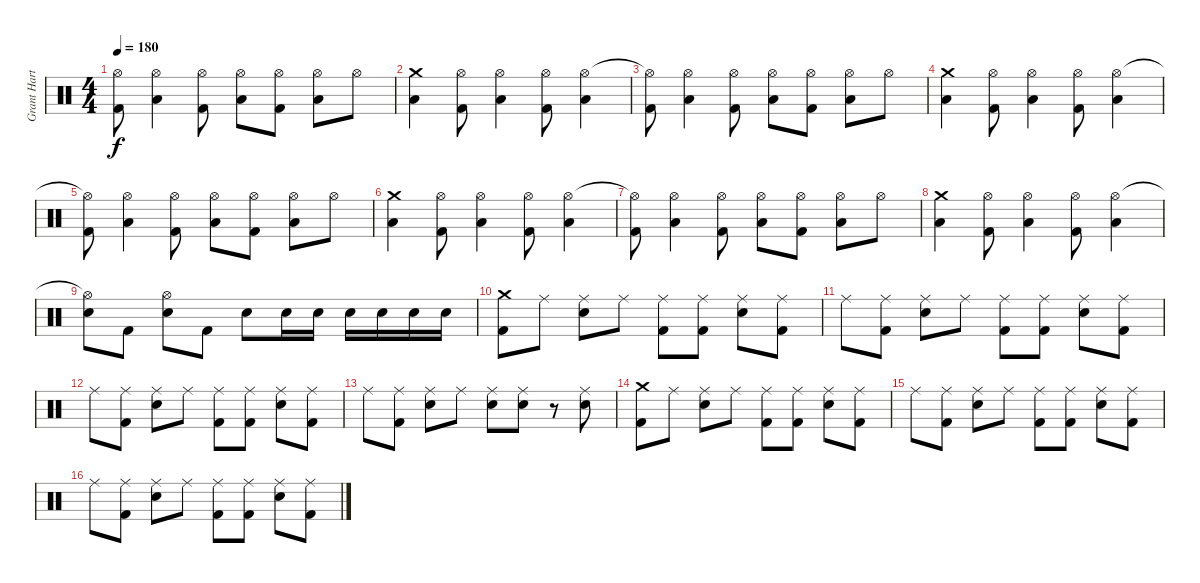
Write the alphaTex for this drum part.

\track ("Grant Hart - Drums" "Grant Hart") {instrument percussion}
\staff {score}
\articulation defaults
\ts (4 4)
\tempo 180
\clef neutral
\ks c
("Hi-Hat (open)"{t} "Kick (hit) 2").8{dy f} ("Hi-Hat (open)" "Low Floor Tom (hit)").4 ("Hi-Hat (open)" "Kick (hit) 2").8 ("Hi-Hat (open)" "Low Floor Tom (hit)").8 ("Hi-Hat (open)" "Kick (hit) 2").8 ("Hi-Hat (open)" "Low Floor Tom (hit)").8 "Hi-Hat (open)".8 |
("Crash medium (hit)" "Low Floor Tom (hit)").4 ("Hi-Hat (open)" "Kick (hit) 2").8 ("Hi-Hat (open)" "Low Floor Tom (hit)").4 ("Hi-Hat (open)" "Kick (hit) 2").8 ("Hi-Hat (open)" "Low Floor Tom (hit)").4 |
("Hi-Hat (open)"{t} "Kick (hit) 2").8 ("Hi-Hat (open)" "Low Floor Tom (hit)").4 ("Hi-Hat (open)" "Kick (hit) 2").8 ("Hi-Hat (open)" "Low Floor Tom (hit)").8 ("Hi-Hat (open)" "Kick (hit) 2").8 ("Hi-Hat (open)" "Low Floor Tom (hit)").8 "Hi-Hat (open)".8 |
("Crash medium (hit)" "Low Floor Tom (hit)").4 ("Hi-Hat (open)" "Kick (hit) 2").8 ("Hi-Hat (open)" "Low Floor Tom (hit)").4 ("Hi-Hat (open)" "Kick (hit) 2").8 ("Hi-Hat (open)" "Low Floor Tom (hit)").4 |
("Hi-Hat (open)"{t} "Kick (hit) 2").8 ("Hi-Hat (open)" "Low Floor Tom (hit)").4 ("Hi-Hat (open)" "Kick (hit) 2").8 ("Hi-Hat (open)" "Low Floor Tom (hit)").8 ("Hi-Hat (open)" "Kick (hit) 2").8 ("Hi-Hat (open)" "Low Floor Tom (hit)").8 "Hi-Hat (open)".8 |
("Crash medium (hit)" "Low Floor Tom (hit)").4 ("Hi-Hat (open)" "Kick (hit) 2").8 ("Hi-Hat (open)" "Low Floor Tom (hit)").4 ("Hi-Hat (open)" "Kick (hit) 2").8 ("Hi-Hat (open)" "Low Floor Tom (hit)").4 |
("Hi-Hat (open)"{t} "Kick (hit) 2").8 ("Hi-Hat (open)" "Low Floor Tom (hit)").4 ("Hi-Hat (open)" "Kick (hit) 2").8 ("Hi-Hat (open)" "Low Floor Tom (hit)").8 ("Hi-Hat (open)" "Kick (hit) 2").8 ("Hi-Hat (open)" "Low Floor Tom (hit)").8 "Hi-Hat (open)".8 |
("Crash medium (hit)" "Low Floor Tom (hit)").4 ("Hi-Hat (open)" "Kick (hit) 2").8 ("Hi-Hat (open)" "Low Floor Tom (hit)").4 ("Hi-Hat (open)" "Kick (hit) 2").8 ("Hi-Hat (open)" "Low Floor Tom (hit)").4 |
("Hi-Hat (open)"{t} "Electric Snare (hit)").8 "Kick (hit) 2".8 ("Hi-Hat (open)" "Electric Snare (hit)").8 "Kick (hit) 2".8 "Electric Snare (hit)".8 "Electric Snare (hit)".16 "Electric Snare (hit)".16 "Electric Snare (hit)".16 "Electric Snare (hit)".16 "Electric Snare (hit)".16 "Electric Snare (hit)".16 |
("Crash medium (hit)" "Kick (hit) 2").8 "Ride (middle)".8 ("Ride (middle)" "Electric Snare (hit)").8 "Ride (middle)".8 ("Ride (middle)" "Kick (hit) 2").8 ("Ride (middle)" "Kick (hit) 2").8 ("Ride (middle)" "Electric Snare (hit)").8 ("Ride (middle)" "Kick (hit) 2").8 |
"Ride (middle)".8 ("Ride (middle)" "Kick (hit) 2").8 ("Ride (middle)" "Electric Snare (hit)").8 "Ride (middle)".8 ("Ride (middle)" "Kick (hit) 2").8 ("Ride (middle)" "Kick (hit) 2").8 ("Ride (middle)" "Electric Snare (hit)").8 ("Ride (middle)" "Kick (hit) 2").8 |
"Ride (middle)".8 ("Ride (middle)" "Kick (hit) 2").8 ("Ride (middle)" "Electric Snare (hit)").8 "Ride (middle)".8 ("Ride (middle)" "Kick (hit) 2").8 ("Ride (middle)" "Kick (hit) 2").8 ("Ride (middle)" "Electric Snare (hit)").8 ("Ride (middle)" "Kick (hit) 2").8 |
"Ride (middle)".8 ("Ride (middle)" "Kick (hit) 2").8 ("Ride (middle)" "Electric Snare (hit)").8 "Ride (middle)".8 ("Ride (middle)" "Electric Snare (hit)").8 ("Ride (middle)" "Electric Snare (hit)").8 r.8 ("Ride (middle)" "Electric Snare (hit)").8 |
("Crash medium (hit)" "Kick (hit) 2").8 "Ride (middle)".8 ("Ride (middle)" "Electric Snare (hit)").8 "Ride (middle)".8 ("Ride (middle)" "Kick (hit) 2").8 ("Ride (middle)" "Kick (hit) 2").8 ("Ride (middle)" "Electric Snare (hit)").8 ("Ride (middle)" "Kick (hit) 2").8 |
"Ride (middle)".8 ("Ride (middle)" "Kick (hit) 2").8 ("Ride (middle)" "Electric Snare (hit)").8 "Ride (middle)".8 ("Ride (middle)" "Kick (hit) 2").8 ("Ride (middle)" "Kick (hit) 2").8 ("Ride (middle)" "Electric Snare (hit)").8 ("Ride (middle)" "Kick (hit) 2").8 |
"Ride (middle)".8 ("Ride (middle)" "Kick (hit) 2").8 ("Ride (middle)" "Electric Snare (hit)").8 "Ride (middle)".8 ("Ride (middle)" "Kick (hit) 2").8 ("Ride (middle)" "Kick (hit) 2").8 ("Ride (middle)" "Electric Snare (hit)").8 ("Ride (middle)" "Kick (hit) 2").8
